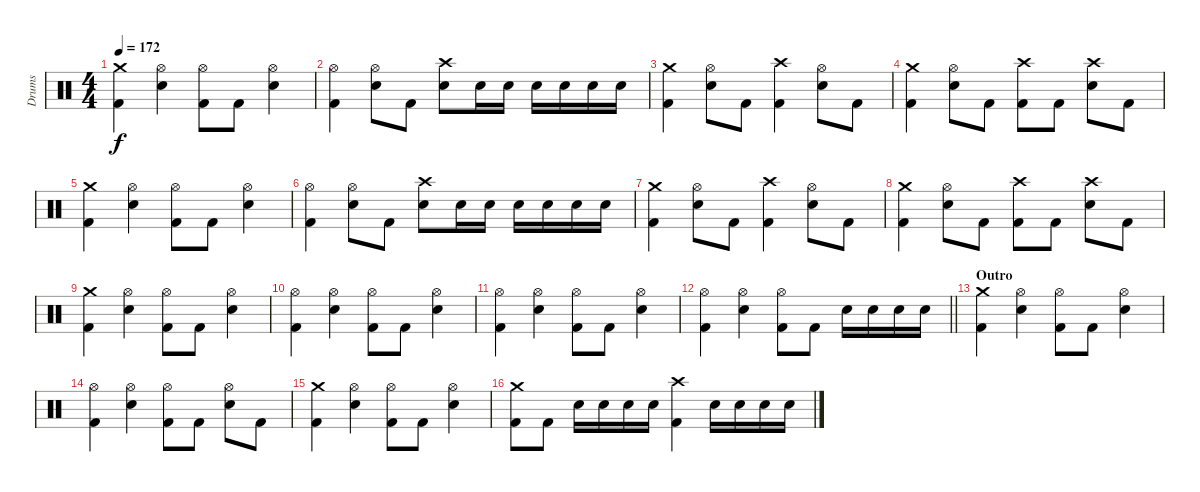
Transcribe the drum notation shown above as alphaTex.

\track ("Drums" "Drums") {instrument percussion}
\staff {score}
\articulation defaults
\ts (4 4)
\tempo 172
\clef neutral
\ks c
("Crash medium (hit)" "Kick (hit) 2").4{dy f} ("Hi-Hat (open)" "Electric Snare (hit)").4 ("Hi-Hat (open)" "Kick (hit) 2").8 "Kick (hit) 2".8 ("Hi-Hat (open)" "Electric Snare (hit)").4 |
("Hi-Hat (open)" "Kick (hit) 2").4 ("Hi-Hat (open)" "Electric Snare (hit)").8 "Kick (hit) 2".8 ("Crash high (hit)" "Electric Snare (hit)").8 "Electric Snare (hit)".16 "Electric Snare (hit)".16 "Electric Snare (hit)".16 "Electric Snare (hit)".16 "Electric Snare (hit)".16 "Electric Snare (hit)".16 |
("Crash medium (hit)" "Kick (hit) 2").4 ("Hi-Hat (open)" "Electric Snare (hit)").8 "Kick (hit) 2".8 ("Crash high (hit)" "Kick (hit) 2").4 ("Hi-Hat (open)" "Electric Snare (hit)").8 "Kick (hit) 2".8 |
("Crash medium (hit)" "Kick (hit) 2").4 ("Hi-Hat (open)" "Electric Snare (hit)").8 "Kick (hit) 2".8 ("Crash high (hit)" "Kick (hit) 2").8 "Kick (hit) 2".8 ("Crash high (hit)" "Electric Snare (hit)").8 "Kick (hit) 2".8 |
("Crash medium (hit)" "Kick (hit) 2").4 ("Hi-Hat (open)" "Electric Snare (hit)").4 ("Hi-Hat (open)" "Kick (hit) 2").8 "Kick (hit) 2".8 ("Hi-Hat (open)" "Electric Snare (hit)").4 |
("Hi-Hat (open)" "Kick (hit) 2").4 ("Hi-Hat (open)" "Electric Snare (hit)").8 "Kick (hit) 2".8 ("Crash high (hit)" "Electric Snare (hit)").8 "Electric Snare (hit)".16 "Electric Snare (hit)".16 "Electric Snare (hit)".16 "Electric Snare (hit)".16 "Electric Snare (hit)".16 "Electric Snare (hit)".16 |
("Crash medium (hit)" "Kick (hit) 2").4 ("Hi-Hat (open)" "Electric Snare (hit)").8 "Kick (hit) 2".8 ("Crash high (hit)" "Kick (hit) 2").4 ("Hi-Hat (open)" "Electric Snare (hit)").8 "Kick (hit) 2".8 |
("Crash medium (hit)" "Kick (hit) 2").4 ("Hi-Hat (open)" "Electric Snare (hit)").8 "Kick (hit) 2".8 ("Crash high (hit)" "Kick (hit) 2").8 "Kick (hit) 2".8 ("Crash high (hit)" "Electric Snare (hit)").8 "Kick (hit) 2".8 |
("Crash medium (hit)" "Kick (hit) 2").4 ("Hi-Hat (open)" "Electric Snare (hit)").4 ("Hi-Hat (open)" "Kick (hit) 2").8 "Kick (hit) 2".8 ("Hi-Hat (open)" "Electric Snare (hit)").4 |
("Hi-Hat (open)" "Kick (hit) 2").4 ("Hi-Hat (open)" "Electric Snare (hit)").4 ("Hi-Hat (open)" "Kick (hit) 2").8 "Kick (hit) 2".8 ("Hi-Hat (open)" "Electric Snare (hit)").4 |
("Hi-Hat (open)" "Kick (hit) 2").4 ("Hi-Hat (open)" "Electric Snare (hit)").4 ("Hi-Hat (open)" "Kick (hit) 2").8 "Kick (hit) 2".8 ("Hi-Hat (open)" "Electric Snare (hit)").4 |
\barLineRight lightlight
("Hi-Hat (open)" "Kick (hit) 2").4 ("Hi-Hat (open)" "Electric Snare (hit)").4 ("Hi-Hat (open)" "Kick (hit) 2").8 "Kick (hit) 2".8 "Electric Snare (hit)".16 "Electric Snare (hit)".16 "Electric Snare (hit)".16 "Electric Snare (hit)".16 |
\section ("" "Outro")
("Crash medium (hit)" "Kick (hit) 2").4 ("Hi-Hat (open)" "Electric Snare (hit)").4 ("Hi-Hat (open)" "Kick (hit) 2").8 "Kick (hit) 2".8 ("Hi-Hat (open)" "Electric Snare (hit)").4 |
("Hi-Hat (open)" "Kick (hit) 2").4 ("Hi-Hat (open)" "Electric Snare (hit)").4 ("Hi-Hat (open)" "Kick (hit) 2").8 "Kick (hit) 2".8 ("Hi-Hat (open)" "Electric Snare (hit)").8 "Kick (hit) 2".8 |
("Crash medium (hit)" "Kick (hit) 2").4 ("Hi-Hat (open)" "Electric Snare (hit)").4 ("Hi-Hat (open)" "Kick (hit) 2").8 "Kick (hit) 2".8 ("Hi-Hat (open)" "Electric Snare (hit)").4 |
("Crash medium (hit)" "Kick (hit) 2").8 "Kick (hit) 2".8 "Electric Snare (hit)".16 "Electric Snare (hit)".16 "Electric Snare (hit)".16 "Electric Snare (hit)".16 ("Crash high (hit)" "Kick (hit) 2").4 "Electric Snare (hit)".16 "Electric Snare (hit)".16 "Electric Snare (hit)".16 "Electric Snare (hit)".16
